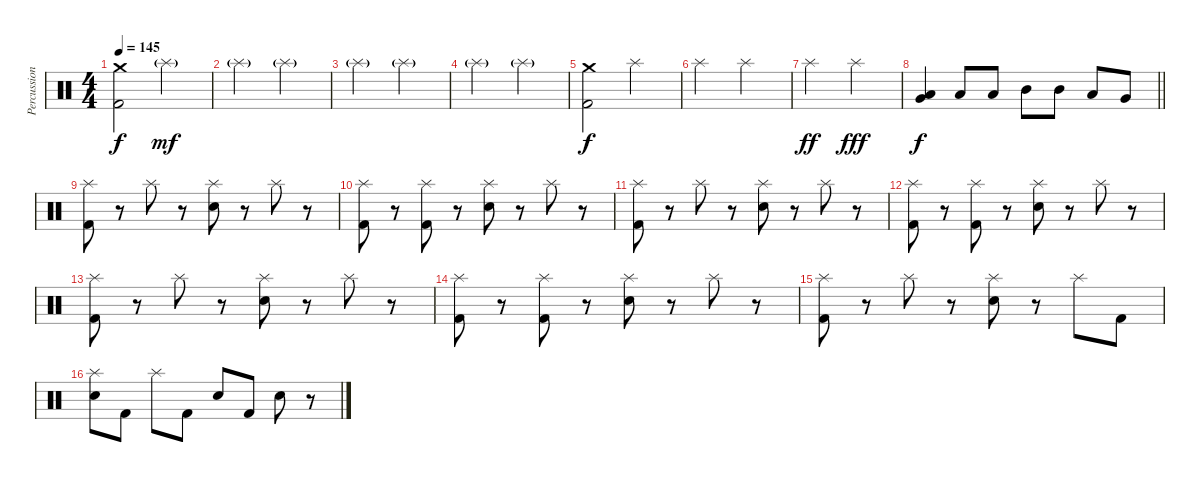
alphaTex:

\track ("Percussion" "Percussion") {instrument percussion}
\staff {score}
\articulation defaults
\ts (4 4)
\tempo 145
\clef neutral
\ks c
("Crash medium (hit)" "Kick (hit) 2").2{dy f} "Splash (hit)"{g}.2{dy mf} |
"Splash (hit)"{g}.2 "Splash (hit)"{g}.2 |
"Splash (hit)"{g}.2 "Splash (hit)"{g}.2 |
"Splash (hit)"{g}.2 "Splash (hit)"{g}.2 |
("Crash medium (hit)" "Kick (hit) 2").2{dy f} "Splash (hit)".2 |
"Splash (hit)".2 "Splash (hit)".2 |
"Splash (hit)".2{dy ff} "Splash (hit)".2{dy fff} |
\barLineRight lightlight
("Very Low Tom (hit)" "Low Tom (hit)").4{dy f} "Low Tom (hit)".8 "Low Tom (hit)".8 "Mid Tom (hit)".8 "Mid Tom (hit)".8 "Low Tom (hit)".8 "Very Low Tom (hit)".8 |
\section ("" "")
("Splash (hit)" "Kick (hit) 2").8 r.8 "Splash (hit)".8 r.8 ("Splash (hit)" "Electric Snare (hit)").8 r.8 "Splash (hit)".8 r.8 |
("Splash (hit)" "Kick (hit) 2").8 r.8 ("Splash (hit)" "Kick (hit) 2").8 r.8 ("Splash (hit)" "Electric Snare (hit)").8 r.8 "Splash (hit)".8 r.8 |
("Splash (hit)" "Kick (hit) 2").8 r.8 "Splash (hit)".8 r.8 ("Splash (hit)" "Electric Snare (hit)").8 r.8 "Splash (hit)".8 r.8 |
("Splash (hit)" "Kick (hit) 2").8 r.8 ("Splash (hit)" "Kick (hit) 2").8 r.8 ("Splash (hit)" "Electric Snare (hit)").8 r.8 "Splash (hit)".8 r.8 |
("Splash (hit)" "Kick (hit) 2").8 r.8 "Splash (hit)".8 r.8 ("Splash (hit)" "Electric Snare (hit)").8 r.8 "Splash (hit)".8 r.8 |
("Splash (hit)" "Kick (hit) 2").8 r.8 ("Splash (hit)" "Kick (hit) 2").8 r.8 ("Splash (hit)" "Electric Snare (hit)").8 r.8 "Splash (hit)".8 r.8 |
("Splash (hit)" "Kick (hit) 2").8 r.8 "Splash (hit)".8 r.8 ("Splash (hit)" "Electric Snare (hit)").8 r.8 "Splash (hit)".8 "Kick (hit) 2".8 |
("Splash (hit)" "Electric Snare (hit)").8 "Kick (hit) 2".8 "Splash (hit)".8 "Kick (hit) 2".8 "Electric Snare (hit)".8 "Kick (hit) 2".8 "Electric Snare (hit)".8 r.8
